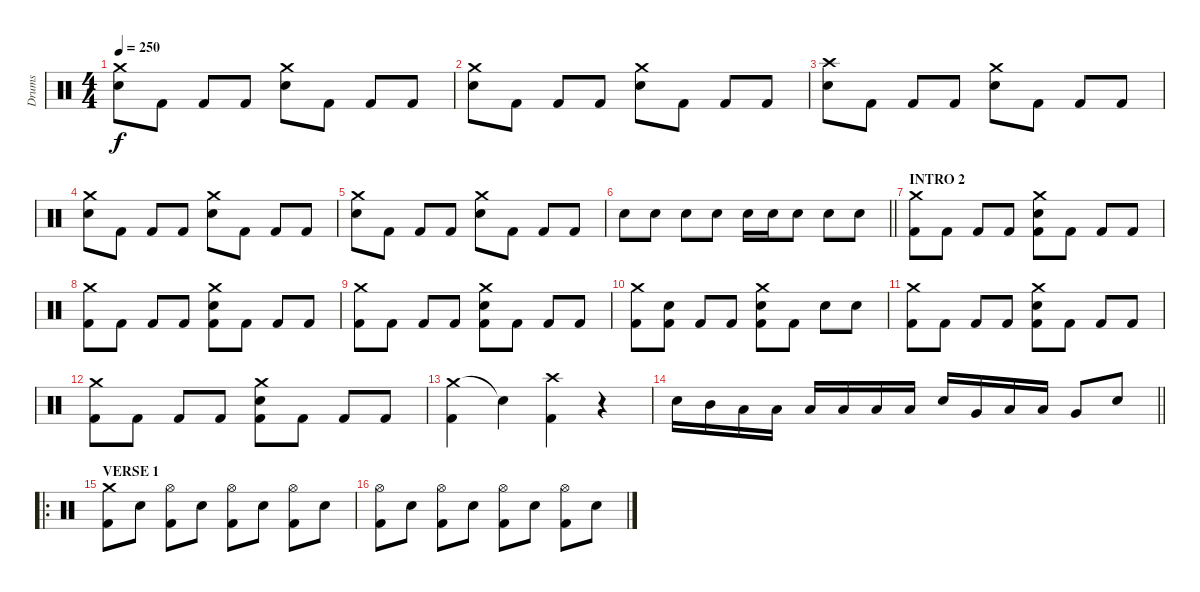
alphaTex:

\track ("Drums" "Drums") {instrument percussion}
\staff {score}
\articulation defaults
\ts (4 4)
\tempo 250
\clef neutral
\ks c
("Crash medium (hit)" "Electric Snare (hit)").8{dy f} "Kick (hit) 2".8 "Kick (hit) 2".8 "Kick (hit) 2".8 ("Crash medium (hit)" "Electric Snare (hit)").8 "Kick (hit) 2".8 "Kick (hit) 2".8 "Kick (hit) 2".8 |
("Crash medium (hit)" "Electric Snare (hit)").8 "Kick (hit) 2".8 "Kick (hit) 2".8 "Kick (hit) 2".8 ("Crash medium (hit)" "Electric Snare (hit)").8 "Kick (hit) 2".8 "Kick (hit) 2".8 "Kick (hit) 2".8 |
("Crash high (hit)" "Electric Snare (hit)").8 "Kick (hit) 2".8 "Kick (hit) 2".8 "Kick (hit) 2".8 ("Crash medium (hit)" "Electric Snare (hit)").8 "Kick (hit) 2".8 "Kick (hit) 2".8 "Kick (hit) 2".8 |
("Crash medium (hit)" "Electric Snare (hit)").8 "Kick (hit) 2".8 "Kick (hit) 2".8 "Kick (hit) 2".8 ("Crash medium (hit)" "Electric Snare (hit)").8 "Kick (hit) 2".8 "Kick (hit) 2".8 "Kick (hit) 2".8 |
("Crash medium (hit)" "Electric Snare (hit)").8 "Kick (hit) 2".8 "Kick (hit) 2".8 "Kick (hit) 2".8 ("Crash medium (hit)" "Electric Snare (hit)").8 "Kick (hit) 2".8 "Kick (hit) 2".8 "Kick (hit) 2".8 |
\barLineRight lightlight "Electric Snare (hit)".8 "Electric Snare (hit)".8 "Electric Snare (hit)".8 "Electric Snare (hit)".8 "Electric Snare (hit)".16 "Electric Snare (hit)".16 "Electric Snare (hit)".8 "Electric Snare (hit)".8 "Electric Snare (hit)".8
|
\section ("" "INTRO 2")
("Crash medium (hit)" "Kick (hit) 2").8 "Kick (hit) 2".8 "Kick (hit) 2".8 "Kick (hit) 2".8 ("Crash medium (hit)" "Electric Snare (hit)" "Kick (hit) 2").8 "Kick (hit) 2".8 "Kick (hit) 2".8 "Kick (hit) 2".8 |
("Crash medium (hit)" "Kick (hit) 2").8 "Kick (hit) 2".8 "Kick (hit) 2".8 "Kick (hit) 2".8 ("Crash medium (hit)" "Electric Snare (hit)" "Kick (hit) 2").8 "Kick (hit) 2".8 "Kick (hit) 2".8 "Kick (hit) 2".8 |
("Crash medium (hit)" "Kick (hit) 2").8 "Kick (hit) 2".8 "Kick (hit) 2".8 "Kick (hit) 2".8 ("Crash medium (hit)" "Electric Snare (hit)" "Kick (hit) 2").8 "Kick (hit) 2".8 "Kick (hit) 2".8 "Kick (hit) 2".8 |
("Crash medium (hit)" "Kick (hit) 2").8 ("Electric Snare (hit)" "Kick (hit) 2").8 "Kick (hit) 2".8 "Kick (hit) 2".8 ("Crash medium (hit)" "Electric Snare (hit)" "Kick (hit) 2").8 "Kick (hit) 2".8 "Electric Snare (hit)".8 "Electric Snare (hit)".8 |
("Crash medium (hit)" "Kick (hit) 2").8 "Kick (hit) 2".8 "Kick (hit) 2".8 "Kick (hit) 2".8 ("Crash medium (hit)" "Electric Snare (hit)" "Kick (hit) 2").8 "Kick (hit) 2".8 "Kick (hit) 2".8 "Kick (hit) 2".8 |
("Crash medium (hit)" "Kick (hit) 2").8 "Kick (hit) 2".8 "Kick (hit) 2".8 "Kick (hit) 2".8 ("Crash medium (hit)" "Electric Snare (hit)" "Kick (hit) 2").8 "Kick (hit) 2".8 "Kick (hit) 2".8 "Kick (hit) 2".8 |
("Crash medium (hit)" "Kick (hit) 2").4 "Snare (hit)"{t}.4 ("Crash high (hit)" "Kick (hit) 2").4 r.4 |
\barLineRight lightlight "Electric Snare (hit)".16 "Mid Tom (hit)".16 "Low Floor Tom (hit)".16 "Low Floor Tom (hit)".16 "Low Tom (hit)".16 "Low Tom (hit)".16 "Low Floor Tom (hit)".16 "Low Floor Tom (hit)".16 "Electric Snare (hit)".16 "Very Low Tom (hit)".16 "Low Floor Tom (hit)".16 "Low Floor Tom (hit)".16 "Very Low Tom (hit)".8 "Electric Snare (hit)".8
|
\ro
\section ("" "VERSE 1")
("Crash medium (hit)" "Kick (hit) 2").8 "Electric Snare (hit)".8 ("Hi-Hat (open)" "Kick (hit) 2").8 "Electric Snare (hit)".8 ("Hi-Hat (open)" "Kick (hit) 2").8 "Electric Snare (hit)".8 ("Hi-Hat (open)" "Kick (hit) 2").8 "Electric Snare (hit)".8 |
("Hi-Hat (open)" "Kick (hit) 2").8 "Electric Snare (hit)".8 ("Hi-Hat (open)" "Kick (hit) 2").8 "Electric Snare (hit)".8 ("Hi-Hat (open)" "Kick (hit) 2").8 "Electric Snare (hit)".8 ("Hi-Hat (open)" "Kick (hit) 2").8 "Electric Snare (hit)".8
